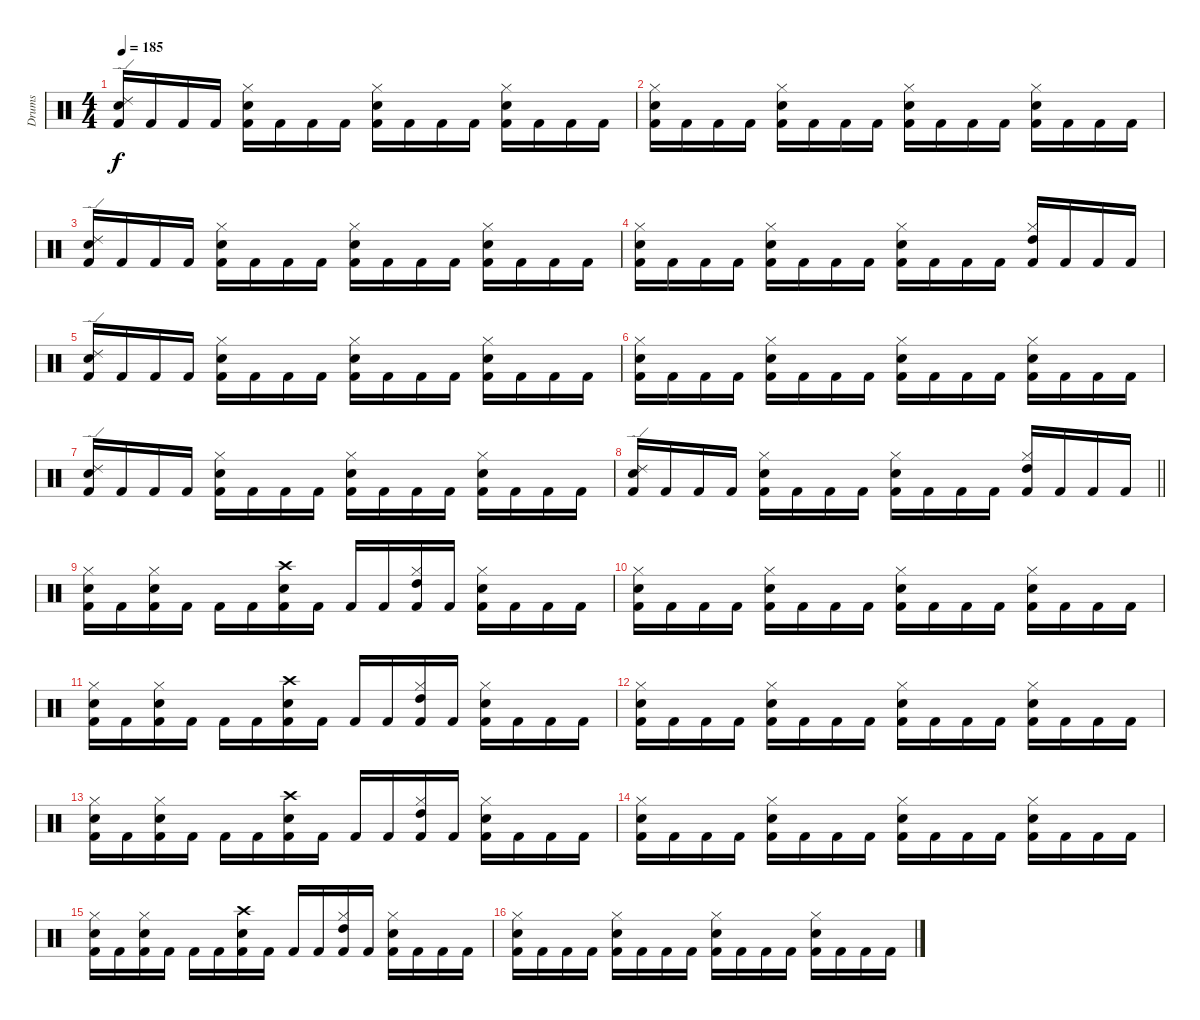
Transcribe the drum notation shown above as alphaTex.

\track ("Drums" "Drums") {instrument percussion}
\staff {score}
\articulation defaults
\ts (4 4)
\tempo 185
\clef neutral
\ks c
("Electric Snare (hit)" "Ride (edge) 2" "Kick (hit) 2").16{dy f} "Kick (hit) 2".16 "Kick (hit) 2".16 "Kick (hit) 2".16 ("Hi-Hat (closed)" "Electric Snare (hit)" "Kick (hit) 2").16 "Kick (hit) 2".16 "Kick (hit) 2".16 "Kick (hit) 2".16 ("Electric Snare (hit)" "Hi-Hat (closed)" "Kick (hit) 2").16 "Kick (hit) 2".16 "Kick (hit) 2".16 "Kick (hit) 2".16 ("Hi-Hat (closed)" "Electric Snare (hit)" "Kick (hit) 2").16 "Kick (hit) 2".16 "Kick (hit) 2".16 "Kick (hit) 2".16 |
("Electric Snare (hit)" "Hi-Hat (closed)" "Kick (hit) 2").16 "Kick (hit) 2".16 "Kick (hit) 2".16 "Kick (hit) 2".16 ("Hi-Hat (closed)" "Electric Snare (hit)" "Kick (hit) 2").16 "Kick (hit) 2".16 "Kick (hit) 2".16 "Kick (hit) 2".16 ("Electric Snare (hit)" "Hi-Hat (closed)" "Kick (hit) 2").16 "Kick (hit) 2".16 "Kick (hit) 2".16 "Kick (hit) 2".16 ("Hi-Hat (closed)" "Electric Snare (hit)" "Kick (hit) 2").16 "Kick (hit) 2".16 "Kick (hit) 2".16 "Kick (hit) 2".16 |
("Electric Snare (hit)" "Ride (edge) 2" "Kick (hit) 2").16 "Kick (hit) 2".16 "Kick (hit) 2".16 "Kick (hit) 2".16 ("Hi-Hat (closed)" "Electric Snare (hit)" "Kick (hit) 2").16 "Kick (hit) 2".16 "Kick (hit) 2".16 "Kick (hit) 2".16 ("Electric Snare (hit)" "Hi-Hat (closed)" "Kick (hit) 2").16 "Kick (hit) 2".16 "Kick (hit) 2".16 "Kick (hit) 2".16 ("Hi-Hat (closed)" "Electric Snare (hit)" "Kick (hit) 2").16 "Kick (hit) 2".16 "Kick (hit) 2".16 "Kick (hit) 2".16 |
("Electric Snare (hit)" "Hi-Hat (closed)" "Kick (hit) 2").16 "Kick (hit) 2".16 "Kick (hit) 2".16 "Kick (hit) 2".16 ("Hi-Hat (closed)" "Electric Snare (hit)" "Kick (hit) 2").16 "Kick (hit) 2".16 "Kick (hit) 2".16 "Kick (hit) 2".16 ("Electric Snare (hit)" "Hi-Hat (closed)" "Kick (hit) 2").16 "Kick (hit) 2".16 "Kick (hit) 2".16 "Kick (hit) 2".16 ("Hi-Hat (closed)" "High Tom (hit)" "Kick (hit) 2").16 "Kick (hit) 2".16 "Kick (hit) 2".16 "Kick (hit) 2".16 |
("Electric Snare (hit)" "Ride (edge) 2" "Kick (hit) 2").16 "Kick (hit) 2".16 "Kick (hit) 2".16 "Kick (hit) 2".16 ("Hi-Hat (closed)" "Electric Snare (hit)" "Kick (hit) 2").16 "Kick (hit) 2".16 "Kick (hit) 2".16 "Kick (hit) 2".16 ("Electric Snare (hit)" "Hi-Hat (closed)" "Kick (hit) 2").16 "Kick (hit) 2".16 "Kick (hit) 2".16 "Kick (hit) 2".16 ("Hi-Hat (closed)" "Electric Snare (hit)" "Kick (hit) 2").16 "Kick (hit) 2".16 "Kick (hit) 2".16 "Kick (hit) 2".16 |
("Electric Snare (hit)" "Hi-Hat (closed)" "Kick (hit) 2").16 "Kick (hit) 2".16 "Kick (hit) 2".16 "Kick (hit) 2".16 ("Hi-Hat (closed)" "Electric Snare (hit)" "Kick (hit) 2").16 "Kick (hit) 2".16 "Kick (hit) 2".16 "Kick (hit) 2".16 ("Electric Snare (hit)" "Hi-Hat (closed)" "Kick (hit) 2").16 "Kick (hit) 2".16 "Kick (hit) 2".16 "Kick (hit) 2".16 ("Hi-Hat (closed)" "Electric Snare (hit)" "Kick (hit) 2").16 "Kick (hit) 2".16 "Kick (hit) 2".16 "Kick (hit) 2".16 |
("Electric Snare (hit)" "Ride (edge) 2" "Kick (hit) 2").16 "Kick (hit) 2".16 "Kick (hit) 2".16 "Kick (hit) 2".16 ("Hi-Hat (closed)" "Electric Snare (hit)" "Kick (hit) 2").16 "Kick (hit) 2".16 "Kick (hit) 2".16 "Kick (hit) 2".16 ("Electric Snare (hit)" "Hi-Hat (closed)" "Kick (hit) 2").16 "Kick (hit) 2".16 "Kick (hit) 2".16 "Kick (hit) 2".16 ("Hi-Hat (closed)" "Electric Snare (hit)" "Kick (hit) 2").16 "Kick (hit) 2".16 "Kick (hit) 2".16 "Kick (hit) 2".16 |
\barLineRight lightlight
("Electric Snare (hit)" "Ride (edge) 2" "Kick (hit) 2").16 "Kick (hit) 2".16 "Kick (hit) 2".16 "Kick (hit) 2".16 ("Hi-Hat (closed)" "Electric Snare (hit)" "Kick (hit) 2").16 "Kick (hit) 2".16 "Kick (hit) 2".16 "Kick (hit) 2".16 ("Electric Snare (hit)" "Hi-Hat (closed)" "Kick (hit) 2").16 "Kick (hit) 2".16 "Kick (hit) 2".16 "Kick (hit) 2".16 ("Hi-Hat (closed)" "High Tom (hit)" "Kick (hit) 2").16 "Kick (hit) 2".16 "Kick (hit) 2".16 "Kick (hit) 2".16 |
("Hi-Hat (closed)" "Electric Snare (hit)" "Kick (hit) 2").16 "Kick (hit) 2".16 ("Hi-Hat (closed)" "Electric Snare (hit)" "Kick (hit) 2").16 "Kick (hit) 2".16 "Kick (hit) 2".16 "Kick (hit) 2".16 ("Crash high (hit)" "Electric Snare (hit)" "Kick (hit) 2").16 "Kick (hit) 2".16 "Kick (hit) 2".16 "Kick (hit) 2".16 ("Hi-Hat (closed)" "High Tom (hit)" "Kick (hit) 2").16 "Kick (hit) 2".16 ("Hi-Hat (closed)" "Electric Snare (hit)" "Kick (hit) 2").16 "Kick (hit) 2".16 "Kick (hit) 2".16 "Kick (hit) 2".16 |
("Electric Snare (hit)" "Hi-Hat (closed)" "Kick (hit) 2").16 "Kick (hit) 2".16 "Kick (hit) 2".16 "Kick (hit) 2".16 ("Hi-Hat (closed)" "Electric Snare (hit)" "Kick (hit) 2").16 "Kick (hit) 2".16 "Kick (hit) 2".16 "Kick (hit) 2".16 ("Electric Snare (hit)" "Hi-Hat (closed)" "Kick (hit) 2").16 "Kick (hit) 2".16 "Kick (hit) 2".16 "Kick (hit) 2".16 ("Hi-Hat (closed)" "Electric Snare (hit)" "Kick (hit) 2").16 "Kick (hit) 2".16 "Kick (hit) 2".16 "Kick (hit) 2".16 |
("Hi-Hat (closed)" "Electric Snare (hit)" "Kick (hit) 2").16 "Kick (hit) 2".16 ("Hi-Hat (closed)" "Electric Snare (hit)" "Kick (hit) 2").16 "Kick (hit) 2".16 "Kick (hit) 2".16 "Kick (hit) 2".16 ("Crash high (hit)" "Electric Snare (hit)" "Kick (hit) 2").16 "Kick (hit) 2".16 "Kick (hit) 2".16 "Kick (hit) 2".16 ("Hi-Hat (closed)" "High Tom (hit)" "Kick (hit) 2").16 "Kick (hit) 2".16 ("Hi-Hat (closed)" "Electric Snare (hit)" "Kick (hit) 2").16 "Kick (hit) 2".16 "Kick (hit) 2".16 "Kick (hit) 2".16 |
("Electric Snare (hit)" "Hi-Hat (closed)" "Kick (hit) 2").16 "Kick (hit) 2".16 "Kick (hit) 2".16 "Kick (hit) 2".16 ("Hi-Hat (closed)" "Electric Snare (hit)" "Kick (hit) 2").16 "Kick (hit) 2".16 "Kick (hit) 2".16 "Kick (hit) 2".16 ("Electric Snare (hit)" "Hi-Hat (closed)" "Kick (hit) 2").16 "Kick (hit) 2".16 "Kick (hit) 2".16 "Kick (hit) 2".16 ("Hi-Hat (closed)" "Electric Snare (hit)" "Kick (hit) 2").16 "Kick (hit) 2".16 "Kick (hit) 2".16 "Kick (hit) 2".16 |
("Hi-Hat (closed)" "Electric Snare (hit)" "Kick (hit) 2").16 "Kick (hit) 2".16 ("Hi-Hat (closed)" "Electric Snare (hit)" "Kick (hit) 2").16 "Kick (hit) 2".16 "Kick (hit) 2".16 "Kick (hit) 2".16 ("Crash high (hit)" "Electric Snare (hit)" "Kick (hit) 2").16 "Kick (hit) 2".16 "Kick (hit) 2".16 "Kick (hit) 2".16 ("Hi-Hat (closed)" "High Tom (hit)" "Kick (hit) 2").16 "Kick (hit) 2".16 ("Hi-Hat (closed)" "Electric Snare (hit)" "Kick (hit) 2").16 "Kick (hit) 2".16 "Kick (hit) 2".16 "Kick (hit) 2".16 |
("Electric Snare (hit)" "Hi-Hat (closed)" "Kick (hit) 2").16 "Kick (hit) 2".16 "Kick (hit) 2".16 "Kick (hit) 2".16 ("Hi-Hat (closed)" "Electric Snare (hit)" "Kick (hit) 2").16 "Kick (hit) 2".16 "Kick (hit) 2".16 "Kick (hit) 2".16 ("Electric Snare (hit)" "Hi-Hat (closed)" "Kick (hit) 2").16 "Kick (hit) 2".16 "Kick (hit) 2".16 "Kick (hit) 2".16 ("Hi-Hat (closed)" "Electric Snare (hit)" "Kick (hit) 2").16 "Kick (hit) 2".16 "Kick (hit) 2".16 "Kick (hit) 2".16 |
("Hi-Hat (closed)" "Electric Snare (hit)" "Kick (hit) 2").16 "Kick (hit) 2".16 ("Hi-Hat (closed)" "Electric Snare (hit)" "Kick (hit) 2").16 "Kick (hit) 2".16 "Kick (hit) 2".16 "Kick (hit) 2".16 ("Crash high (hit)" "Electric Snare (hit)" "Kick (hit) 2").16 "Kick (hit) 2".16 "Kick (hit) 2".16 "Kick (hit) 2".16 ("Hi-Hat (closed)" "High Tom (hit)" "Kick (hit) 2").16 "Kick (hit) 2".16 ("Hi-Hat (closed)" "Electric Snare (hit)" "Kick (hit) 2").16 "Kick (hit) 2".16 "Kick (hit) 2".16 "Kick (hit) 2".16 |
("Electric Snare (hit)" "Hi-Hat (closed)" "Kick (hit) 2").16 "Kick (hit) 2".16 "Kick (hit) 2".16 "Kick (hit) 2".16 ("Hi-Hat (closed)" "Electric Snare (hit)" "Kick (hit) 2").16 "Kick (hit) 2".16 "Kick (hit) 2".16 "Kick (hit) 2".16 ("Electric Snare (hit)" "Hi-Hat (closed)" "Kick (hit) 2").16 "Kick (hit) 2".16 "Kick (hit) 2".16 "Kick (hit) 2".16 ("Hi-Hat (closed)" "Electric Snare (hit)" "Kick (hit) 2").16 "Kick (hit) 2".16 "Kick (hit) 2".16 "Kick (hit) 2".16
